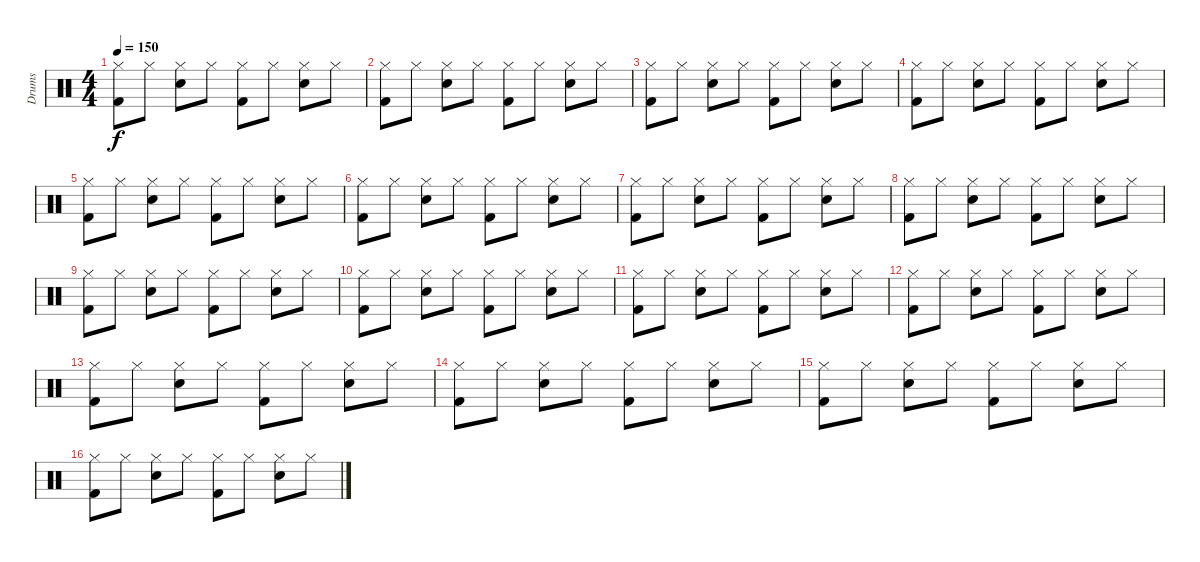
\track ("Drums" "Drums") {instrument percussion}
\staff {score}
\articulation defaults
\ts (4 4)
\tempo 150
\clef neutral
\ks c
("Hi-Hat (closed)" "Kick (hit) 2").8{dy f} "Hi-Hat (closed)".8 ("Hi-Hat (closed)" "Electric Snare (hit)").8 "Hi-Hat (closed)".8 ("Hi-Hat (closed)" "Kick (hit) 2").8 "Hi-Hat (closed)".8 ("Hi-Hat (closed)" "Electric Snare (hit)").8 "Hi-Hat (closed)".8 |
("Hi-Hat (closed)" "Kick (hit) 2").8 "Hi-Hat (closed)".8 ("Hi-Hat (closed)" "Electric Snare (hit)").8 "Hi-Hat (closed)".8 ("Hi-Hat (closed)" "Kick (hit) 2").8 "Hi-Hat (closed)".8 ("Hi-Hat (closed)" "Electric Snare (hit)").8 "Hi-Hat (closed)".8 |
("Hi-Hat (closed)" "Kick (hit) 2").8 "Hi-Hat (closed)".8 ("Hi-Hat (closed)" "Electric Snare (hit)").8 "Hi-Hat (closed)".8 ("Hi-Hat (closed)" "Kick (hit) 2").8 "Hi-Hat (closed)".8 ("Hi-Hat (closed)" "Electric Snare (hit)").8 "Hi-Hat (closed)".8 |
("Hi-Hat (closed)" "Kick (hit) 2").8 "Hi-Hat (closed)".8 ("Hi-Hat (closed)" "Electric Snare (hit)").8 "Hi-Hat (closed)".8 ("Hi-Hat (closed)" "Kick (hit) 2").8 "Hi-Hat (closed)".8 ("Hi-Hat (closed)" "Electric Snare (hit)").8 "Hi-Hat (closed)".8 |
("Hi-Hat (closed)" "Kick (hit) 2").8 "Hi-Hat (closed)".8 ("Hi-Hat (closed)" "Electric Snare (hit)").8 "Hi-Hat (closed)".8 ("Hi-Hat (closed)" "Kick (hit) 2").8 "Hi-Hat (closed)".8 ("Hi-Hat (closed)" "Electric Snare (hit)").8 "Hi-Hat (closed)".8 |
("Hi-Hat (closed)" "Kick (hit) 2").8 "Hi-Hat (closed)".8 ("Hi-Hat (closed)" "Electric Snare (hit)").8 "Hi-Hat (closed)".8 ("Hi-Hat (closed)" "Kick (hit) 2").8 "Hi-Hat (closed)".8 ("Hi-Hat (closed)" "Electric Snare (hit)").8 "Hi-Hat (closed)".8 |
("Hi-Hat (closed)" "Kick (hit) 2").8 "Hi-Hat (closed)".8 ("Hi-Hat (closed)" "Electric Snare (hit)").8 "Hi-Hat (closed)".8 ("Hi-Hat (closed)" "Kick (hit) 2").8 "Hi-Hat (closed)".8 ("Hi-Hat (closed)" "Electric Snare (hit)").8 "Hi-Hat (closed)".8 |
("Hi-Hat (closed)" "Kick (hit) 2").8 "Hi-Hat (closed)".8 ("Hi-Hat (closed)" "Electric Snare (hit)").8 "Hi-Hat (closed)".8 ("Hi-Hat (closed)" "Kick (hit) 2").8 "Hi-Hat (closed)".8 ("Hi-Hat (closed)" "Electric Snare (hit)").8 "Hi-Hat (closed)".8 |
("Hi-Hat (closed)" "Kick (hit) 2").8 "Hi-Hat (closed)".8 ("Hi-Hat (closed)" "Electric Snare (hit)").8 "Hi-Hat (closed)".8 ("Hi-Hat (closed)" "Kick (hit) 2").8 "Hi-Hat (closed)".8 ("Hi-Hat (closed)" "Electric Snare (hit)").8 "Hi-Hat (closed)".8 |
("Hi-Hat (closed)" "Kick (hit) 2").8 "Hi-Hat (closed)".8 ("Hi-Hat (closed)" "Electric Snare (hit)").8 "Hi-Hat (closed)".8 ("Hi-Hat (closed)" "Kick (hit) 2").8 "Hi-Hat (closed)".8 ("Hi-Hat (closed)" "Electric Snare (hit)").8 "Hi-Hat (closed)".8 |
("Hi-Hat (closed)" "Kick (hit) 2").8 "Hi-Hat (closed)".8 ("Hi-Hat (closed)" "Electric Snare (hit)").8 "Hi-Hat (closed)".8 ("Hi-Hat (closed)" "Kick (hit) 2").8 "Hi-Hat (closed)".8 ("Hi-Hat (closed)" "Electric Snare (hit)").8 "Hi-Hat (closed)".8 |
("Hi-Hat (closed)" "Kick (hit) 2").8 "Hi-Hat (closed)".8 ("Hi-Hat (closed)" "Electric Snare (hit)").8 "Hi-Hat (closed)".8 ("Hi-Hat (closed)" "Kick (hit) 2").8 "Hi-Hat (closed)".8 ("Hi-Hat (closed)" "Electric Snare (hit)").8 "Hi-Hat (closed)".8 |
("Hi-Hat (closed)" "Kick (hit) 2").8 "Hi-Hat (closed)".8 ("Hi-Hat (closed)" "Electric Snare (hit)").8 "Hi-Hat (closed)".8 ("Hi-Hat (closed)" "Kick (hit) 2").8 "Hi-Hat (closed)".8 ("Hi-Hat (closed)" "Electric Snare (hit)").8 "Hi-Hat (closed)".8 |
("Hi-Hat (closed)" "Kick (hit) 2").8 "Hi-Hat (closed)".8 ("Hi-Hat (closed)" "Electric Snare (hit)").8 "Hi-Hat (closed)".8 ("Hi-Hat (closed)" "Kick (hit) 2").8 "Hi-Hat (closed)".8 ("Hi-Hat (closed)" "Electric Snare (hit)").8 "Hi-Hat (closed)".8 |
("Hi-Hat (closed)" "Kick (hit) 2").8 "Hi-Hat (closed)".8 ("Hi-Hat (closed)" "Electric Snare (hit)").8 "Hi-Hat (closed)".8 ("Hi-Hat (closed)" "Kick (hit) 2").8 "Hi-Hat (closed)".8 ("Hi-Hat (closed)" "Electric Snare (hit)").8 "Hi-Hat (closed)".8 |
("Hi-Hat (closed)" "Kick (hit) 2").8 "Hi-Hat (closed)".8 ("Hi-Hat (closed)" "Electric Snare (hit)").8 "Hi-Hat (closed)".8 ("Hi-Hat (closed)" "Kick (hit) 2").8 "Hi-Hat (closed)".8 ("Hi-Hat (closed)" "Electric Snare (hit)").8 "Hi-Hat (closed)".8
